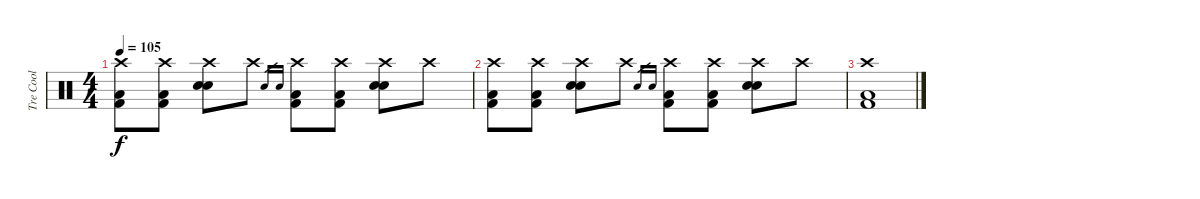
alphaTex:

\track ("Tre Cool" "Tre Cool") {instrument percussion}
\staff {score}
\articulation defaults
\ts (4 4)
\tempo 105
\clef neutral
\ks c
("Crash high (hit)" "Kick (hit) 2" "Low Floor Tom (hit)").8{dy f} ("Crash high (hit)" "Kick (hit) 2" "Low Floor Tom (hit)").8 ("Crash high (hit)" "Electric Snare (hit)" "Electric Snare (hit)").8 "Crash high (hit)".8 "Electric Snare (hit)".16{gr} "Electric Snare (hit)".16{gr} ("Crash high (hit)" "Kick (hit) 2" "Low Floor Tom (hit)").8 ("Crash high (hit)" "Kick (hit) 2" "Low Floor Tom (hit)").8 ("Crash high (hit)" "Electric Snare (hit)" "Electric Snare (hit)").8 "Crash high (hit)".8 |
("Crash high (hit)" "Kick (hit) 2" "Low Floor Tom (hit)").8 ("Crash high (hit)" "Kick (hit) 2" "Low Floor Tom (hit)").8 ("Crash high (hit)" "Electric Snare (hit)" "Electric Snare (hit)").8 "Crash high (hit)".8 "Electric Snare (hit)".16{gr} "Electric Snare (hit)".16{gr} ("Crash high (hit)" "Kick (hit) 2" "Low Floor Tom (hit)").8 ("Crash high (hit)" "Kick (hit) 2" "Low Floor Tom (hit)").8 ("Crash high (hit)" "Electric Snare (hit)" "Electric Snare (hit)").8 "Crash high (hit)".8 |
("Crash high (hit)" "Kick (hit) 2" "Low Floor Tom (hit)").1
